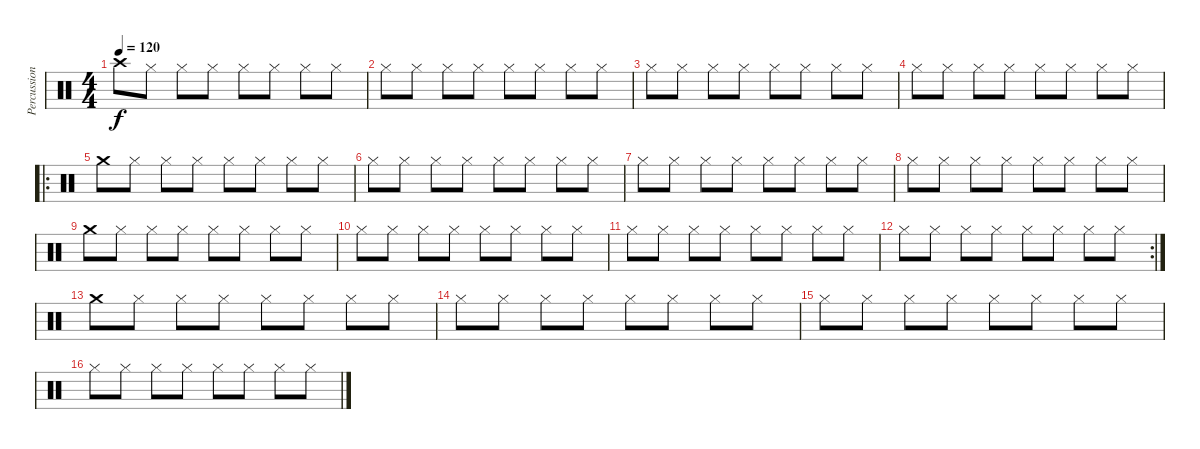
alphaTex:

\track ("Percussion 2" "Percussion") {instrument percussion}
\staff {score}
\articulation defaults
\ts (4 4)
\tempo 120
\clef neutral
\ks c "Crash high (hit)".8{dy f} "Hi-Hat (closed)".8 "Hi-Hat (closed)".8 "Hi-Hat (closed)".8 "Hi-Hat (closed)".8 "Hi-Hat (closed)".8 "Hi-Hat (closed)".8 "Hi-Hat (closed)".8
|
"Hi-Hat (closed)".8 "Hi-Hat (closed)".8 "Hi-Hat (closed)".8 "Hi-Hat (closed)".8 "Hi-Hat (closed)".8 "Hi-Hat (closed)".8 "Hi-Hat (closed)".8 "Hi-Hat (closed)".8 |
"Hi-Hat (closed)".8 "Hi-Hat (closed)".8 "Hi-Hat (closed)".8 "Hi-Hat (closed)".8 "Hi-Hat (closed)".8 "Hi-Hat (closed)".8 "Hi-Hat (closed)".8 "Hi-Hat (closed)".8 |
"Hi-Hat (closed)".8 "Hi-Hat (closed)".8 "Hi-Hat (closed)".8 "Hi-Hat (closed)".8 "Hi-Hat (closed)".8 "Hi-Hat (closed)".8 "Hi-Hat (closed)".8 "Hi-Hat (closed)".8 |
\ro "Crash medium (hit)".8 "Hi-Hat (closed)".8 "Hi-Hat (closed)".8 "Hi-Hat (closed)".8 "Hi-Hat (closed)".8 "Hi-Hat (closed)".8 "Hi-Hat (closed)".8 "Hi-Hat (closed)".8
|
"Hi-Hat (closed)".8 "Hi-Hat (closed)".8 "Hi-Hat (closed)".8 "Hi-Hat (closed)".8 "Hi-Hat (closed)".8 "Hi-Hat (closed)".8 "Hi-Hat (closed)".8 "Hi-Hat (closed)".8 |
"Hi-Hat (closed)".8 "Hi-Hat (closed)".8 "Hi-Hat (closed)".8 "Hi-Hat (closed)".8 "Hi-Hat (closed)".8 "Hi-Hat (closed)".8 "Hi-Hat (closed)".8 "Hi-Hat (closed)".8 |
"Hi-Hat (closed)".8 "Hi-Hat (closed)".8 "Hi-Hat (closed)".8 "Hi-Hat (closed)".8 "Hi-Hat (closed)".8 "Hi-Hat (closed)".8 "Hi-Hat (closed)".8 "Hi-Hat (closed)".8 |
"Crash medium (hit)".8 "Hi-Hat (closed)".8 "Hi-Hat (closed)".8 "Hi-Hat (closed)".8 "Hi-Hat (closed)".8 "Hi-Hat (closed)".8 "Hi-Hat (closed)".8 "Hi-Hat (closed)".8 |
"Hi-Hat (closed)".8 "Hi-Hat (closed)".8 "Hi-Hat (closed)".8 "Hi-Hat (closed)".8 "Hi-Hat (closed)".8 "Hi-Hat (closed)".8 "Hi-Hat (closed)".8 "Hi-Hat (closed)".8 |
"Hi-Hat (closed)".8 "Hi-Hat (closed)".8 "Hi-Hat (closed)".8 "Hi-Hat (closed)".8 "Hi-Hat (closed)".8 "Hi-Hat (closed)".8 "Hi-Hat (closed)".8 "Hi-Hat (closed)".8 |
\rc 2 "Hi-Hat (closed)".8 "Hi-Hat (closed)".8 "Hi-Hat (closed)".8 "Hi-Hat (closed)".8 "Hi-Hat (closed)".8 "Hi-Hat (closed)".8 "Hi-Hat (closed)".8 "Hi-Hat (closed)".8
|
"Crash medium (hit)".8 "Hi-Hat (closed)".8 "Hi-Hat (closed)".8 "Hi-Hat (closed)".8 "Hi-Hat (closed)".8 "Hi-Hat (closed)".8 "Hi-Hat (closed)".8 "Hi-Hat (closed)".8 |
"Hi-Hat (closed)".8 "Hi-Hat (closed)".8 "Hi-Hat (closed)".8 "Hi-Hat (closed)".8 "Hi-Hat (closed)".8 "Hi-Hat (closed)".8 "Hi-Hat (closed)".8 "Hi-Hat (closed)".8 |
"Hi-Hat (closed)".8 "Hi-Hat (closed)".8 "Hi-Hat (closed)".8 "Hi-Hat (closed)".8 "Hi-Hat (closed)".8 "Hi-Hat (closed)".8 "Hi-Hat (closed)".8 "Hi-Hat (closed)".8 |
"Hi-Hat (closed)".8 "Hi-Hat (closed)".8 "Hi-Hat (closed)".8 "Hi-Hat (closed)".8 "Hi-Hat (closed)".8 "Hi-Hat (closed)".8 "Hi-Hat (closed)".8 "Hi-Hat (closed)".8
